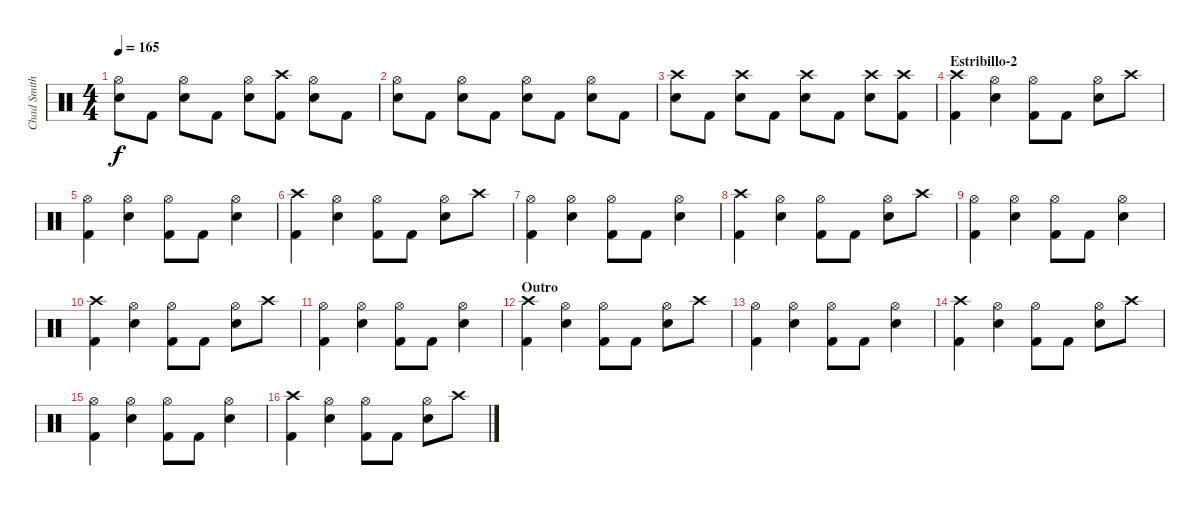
\track ("Chad Smith" "Chad Smith") {instrument percussion}
\staff {score}
\articulation defaults
\ts (4 4)
\tempo 165
\clef neutral
\ks c
("Hi-Hat (open)" "Snare (hit) 2").8{dy f} "Kick (hit) 2".8 ("Hi-Hat (open)" "Snare (hit) 2").8 "Kick (hit) 2".8 ("Hi-Hat (open)" "Snare (hit) 2").8 ("Crash high (hit)" "Kick (hit) 2").8 ("Hi-Hat (open)" "Snare (hit) 2").8 "Kick (hit) 2".8 |
("Hi-Hat (open)" "Snare (hit) 2").8 "Kick (hit) 2".8 ("Hi-Hat (open)" "Snare (hit) 2").8 "Kick (hit) 2".8 ("Hi-Hat (open)" "Snare (hit) 2").8 "Kick (hit) 2".8 ("Hi-Hat (open)" "Snare (hit) 2").8 "Kick (hit) 2".8 |
("Crash high (hit)" "Snare (hit) 2").8 "Kick (hit) 2".8 ("Crash high (hit)" "Snare (hit) 2").8 "Kick (hit) 2".8 ("Crash high (hit)" "Snare (hit) 2").8 "Kick (hit) 2".8 ("Crash high (hit)" "Snare (hit) 2").8 ("Crash high (hit)" "Kick (hit) 2").8 |
\section ("" "Estribillo-2")
("Crash high (hit)" "Kick (hit) 2").4 ("Hi-Hat (open)" "Snare (hit) 2").4 ("Hi-Hat (open)" "Kick (hit) 2").8 "Kick (hit) 2".8 ("Hi-Hat (open)" "Snare (hit) 2").8 "Crash high (hit)".8 |
("Hi-Hat (open)" "Kick (hit) 2").4 ("Hi-Hat (open)" "Snare (hit) 2").4 ("Hi-Hat (open)" "Kick (hit) 2").8 "Kick (hit) 2".8 ("Hi-Hat (open)" "Snare (hit) 2").4 |
("Crash high (hit)" "Kick (hit) 2").4 ("Hi-Hat (open)" "Snare (hit) 2").4 ("Hi-Hat (open)" "Kick (hit) 2").8 "Kick (hit) 2".8 ("Hi-Hat (open)" "Snare (hit) 2").8 "Crash high (hit)".8 |
("Hi-Hat (open)" "Kick (hit) 2").4 ("Hi-Hat (open)" "Snare (hit) 2").4 ("Hi-Hat (open)" "Kick (hit) 2").8 "Kick (hit) 2".8 ("Hi-Hat (open)" "Snare (hit) 2").4 |
("Crash high (hit)" "Kick (hit) 2").4 ("Hi-Hat (open)" "Snare (hit) 2").4 ("Hi-Hat (open)" "Kick (hit) 2").8 "Kick (hit) 2".8 ("Hi-Hat (open)" "Snare (hit) 2").8 "Crash high (hit)".8 |
("Hi-Hat (open)" "Kick (hit) 2").4 ("Hi-Hat (open)" "Snare (hit) 2").4 ("Hi-Hat (open)" "Kick (hit) 2").8 "Kick (hit) 2".8 ("Hi-Hat (open)" "Snare (hit) 2").4 |
("Crash high (hit)" "Kick (hit) 2").4 ("Hi-Hat (open)" "Snare (hit) 2").4 ("Hi-Hat (open)" "Kick (hit) 2").8 "Kick (hit) 2".8 ("Hi-Hat (open)" "Snare (hit) 2").8 "Crash high (hit)".8 |
("Hi-Hat (open)" "Kick (hit) 2").4 ("Hi-Hat (open)" "Snare (hit) 2").4 ("Hi-Hat (open)" "Kick (hit) 2").8 "Kick (hit) 2".8 ("Hi-Hat (open)" "Snare (hit) 2").4 |
\section ("" "Outro")
("Crash high (hit)" "Kick (hit) 2").4 ("Hi-Hat (open)" "Snare (hit) 2").4 ("Hi-Hat (open)" "Kick (hit) 2").8 "Kick (hit) 2".8 ("Hi-Hat (open)" "Snare (hit) 2").8 "Crash high (hit)".8 |
("Hi-Hat (open)" "Kick (hit) 2").4 ("Hi-Hat (open)" "Snare (hit) 2").4 ("Hi-Hat (open)" "Kick (hit) 2").8 "Kick (hit) 2".8 ("Hi-Hat (open)" "Snare (hit) 2").4 |
("Crash high (hit)" "Kick (hit) 2").4 ("Hi-Hat (open)" "Snare (hit) 2").4 ("Hi-Hat (open)" "Kick (hit) 2").8 "Kick (hit) 2".8 ("Hi-Hat (open)" "Snare (hit) 2").8 "Crash high (hit)".8 |
("Hi-Hat (open)" "Kick (hit) 2").4 ("Hi-Hat (open)" "Snare (hit) 2").4 ("Hi-Hat (open)" "Kick (hit) 2").8 "Kick (hit) 2".8 ("Hi-Hat (open)" "Snare (hit) 2").4 |
("Crash high (hit)" "Kick (hit) 2").4 ("Hi-Hat (open)" "Snare (hit) 2").4 ("Hi-Hat (open)" "Kick (hit) 2").8 "Kick (hit) 2".8 ("Hi-Hat (open)" "Snare (hit) 2").8 "Crash high (hit)".8
